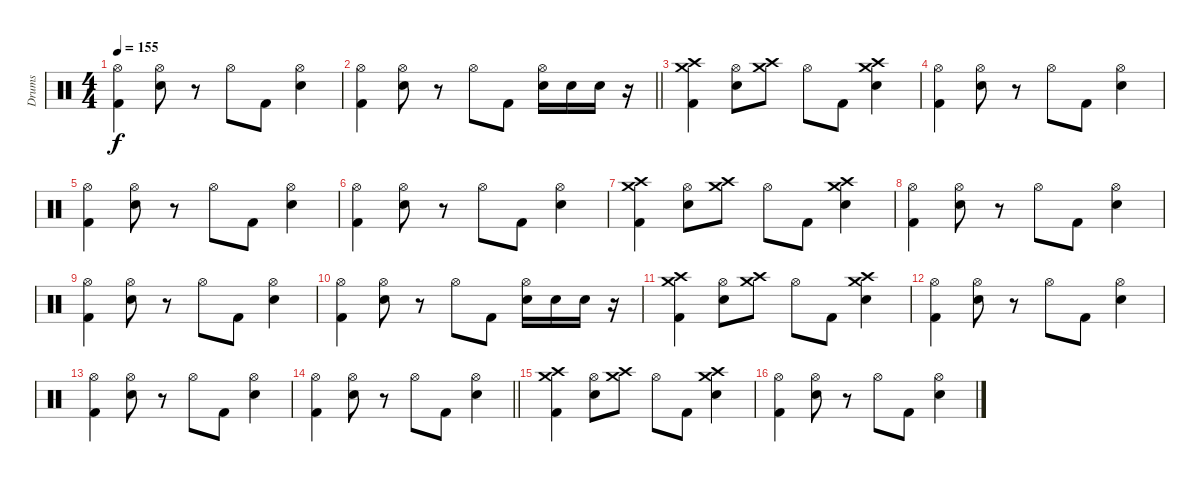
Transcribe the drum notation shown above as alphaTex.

\track ("Drums" "Drums") {instrument percussion}
\staff {score}
\articulation defaults
\ts (4 4)
\tempo 155
\clef neutral
\ks c
("Hi-Hat (open)" "Kick (hit) 2").4{dy f} ("Hi-Hat (open)" "Electric Snare (hit)").8 r.8 "Hi-Hat (open)".8 "Kick (hit) 2".8 ("Hi-Hat (open)" "Electric Snare (hit)").4 |
\barLineRight lightlight
("Hi-Hat (open)" "Kick (hit) 2").4 ("Hi-Hat (open)" "Electric Snare (hit)").8 r.8 "Hi-Hat (open)".8 "Kick (hit) 2".8 ("Hi-Hat (open)" "Electric Snare (hit)").16 "Electric Snare (hit)".16 "Electric Snare (hit)".16 r.16 |
("Crash high (hit)" "Crash medium (hit)" "Kick (hit) 2").4 ("Hi-Hat (open)" "Electric Snare (hit)").8 ("Crash high (hit)" "Crash medium (hit)").8 "Hi-Hat (open)".8 "Kick (hit) 2".8 ("Crash high (hit)" "Crash medium (hit)" "Electric Snare (hit)").4 |
("Hi-Hat (open)" "Kick (hit) 2").4 ("Hi-Hat (open)" "Electric Snare (hit)").8 r.8 "Hi-Hat (open)".8 "Kick (hit) 2".8 ("Hi-Hat (open)" "Electric Snare (hit)").4 |
("Hi-Hat (open)" "Kick (hit) 2").4 ("Hi-Hat (open)" "Electric Snare (hit)").8 r.8 "Hi-Hat (open)".8 "Kick (hit) 2".8 ("Hi-Hat (open)" "Electric Snare (hit)").4 |
("Hi-Hat (open)" "Kick (hit) 2").4 ("Hi-Hat (open)" "Electric Snare (hit)").8 r.8 "Hi-Hat (open)".8 "Kick (hit) 2".8 ("Hi-Hat (open)" "Electric Snare (hit)").4 |
("Crash high (hit)" "Crash medium (hit)" "Kick (hit) 2").4 ("Hi-Hat (open)" "Electric Snare (hit)").8 ("Crash high (hit)" "Crash medium (hit)").8 "Hi-Hat (open)".8 "Kick (hit) 2".8 ("Crash high (hit)" "Crash medium (hit)" "Electric Snare (hit)").4 |
("Hi-Hat (open)" "Kick (hit) 2").4 ("Hi-Hat (open)" "Electric Snare (hit)").8 r.8 "Hi-Hat (open)".8 "Kick (hit) 2".8 ("Hi-Hat (open)" "Electric Snare (hit)").4 |
("Hi-Hat (open)" "Kick (hit) 2").4 ("Hi-Hat (open)" "Electric Snare (hit)").8 r.8 "Hi-Hat (open)".8 "Kick (hit) 2".8 ("Hi-Hat (open)" "Electric Snare (hit)").4 |
("Hi-Hat (open)" "Kick (hit) 2").4 ("Hi-Hat (open)" "Electric Snare (hit)").8 r.8 "Hi-Hat (open)".8 "Kick (hit) 2".8 ("Hi-Hat (open)" "Electric Snare (hit)").16 "Electric Snare (hit)".16 "Electric Snare (hit)".16 r.16 |
("Crash high (hit)" "Crash medium (hit)" "Kick (hit) 2").4 ("Hi-Hat (open)" "Electric Snare (hit)").8 ("Crash high (hit)" "Crash medium (hit)").8 "Hi-Hat (open)".8 "Kick (hit) 2".8 ("Crash high (hit)" "Crash medium (hit)" "Electric Snare (hit)").4 |
("Hi-Hat (open)" "Kick (hit) 2").4 ("Hi-Hat (open)" "Electric Snare (hit)").8 r.8 "Hi-Hat (open)".8 "Kick (hit) 2".8 ("Hi-Hat (open)" "Electric Snare (hit)").4 |
("Hi-Hat (open)" "Kick (hit) 2").4 ("Hi-Hat (open)" "Electric Snare (hit)").8 r.8 "Hi-Hat (open)".8 "Kick (hit) 2".8 ("Hi-Hat (open)" "Electric Snare (hit)").4 |
\barLineRight lightlight
("Hi-Hat (open)" "Kick (hit) 2").4 ("Hi-Hat (open)" "Electric Snare (hit)").8 r.8 "Hi-Hat (open)".8 "Kick (hit) 2".8 ("Hi-Hat (open)" "Electric Snare (hit)").4 |
("Crash high (hit)" "Crash medium (hit)" "Kick (hit) 2").4 ("Hi-Hat (open)" "Electric Snare (hit)").8 ("Crash high (hit)" "Crash medium (hit)").8 "Hi-Hat (open)".8 "Kick (hit) 2".8 ("Crash high (hit)" "Crash medium (hit)" "Electric Snare (hit)").4 |
("Hi-Hat (open)" "Kick (hit) 2").4 ("Hi-Hat (open)" "Electric Snare (hit)").8 r.8 "Hi-Hat (open)".8 "Kick (hit) 2".8 ("Hi-Hat (open)" "Electric Snare (hit)").4
